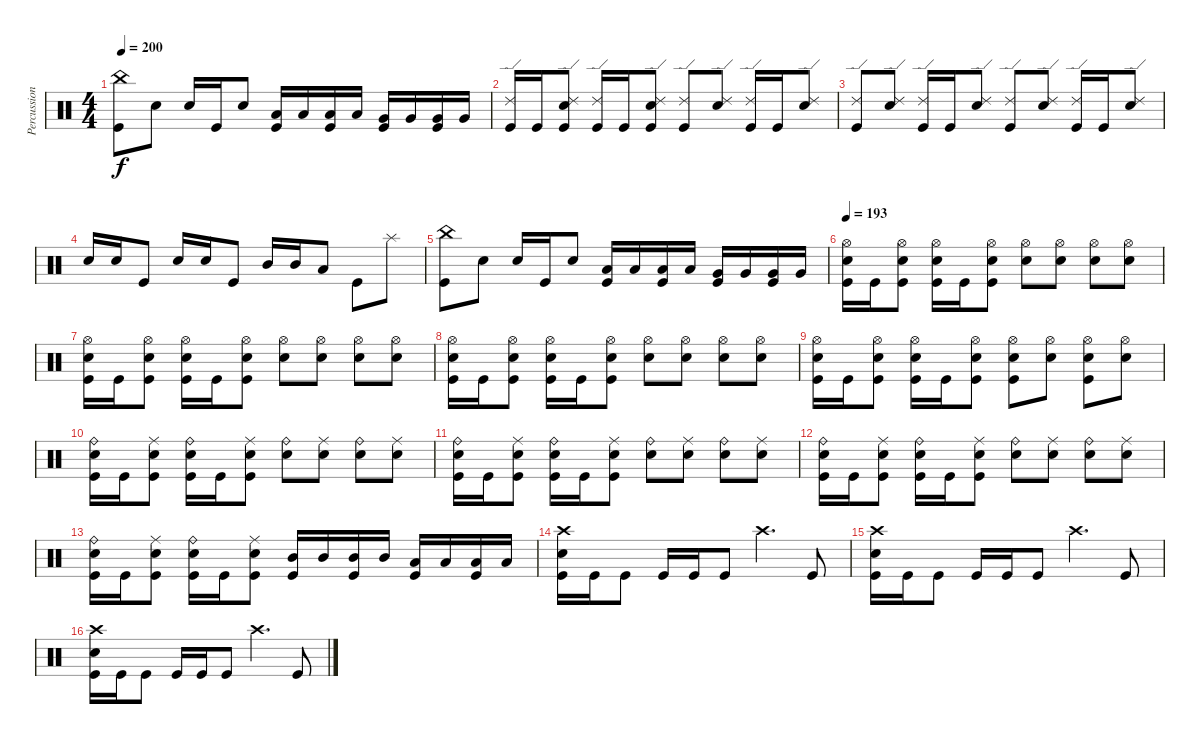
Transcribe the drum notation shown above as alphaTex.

\track ("Percussion" "Percussion") {instrument percussion}
\staff {score}
\articulation defaults
\ts (4 4)
\tempo 200
\clef neutral
\ks c
("China (hit)" "Kick (hit)").8{dy f} "Snare (hit) 2".8 "Snare (hit) 2".16 "Kick (hit)".16 "Snare (hit) 2".8 ("Low Tom (hit)" "Kick (hit)").16 "Low Tom (hit)".16 ("Low Tom (hit)" "Kick (hit)").16 "Low Tom (hit)".16 ("Very Low Tom (hit)" "Kick (hit)").16 "Very Low Tom (hit)".16 ("Very Low Tom (hit)" "Kick (hit)").16 "Very Low Tom (hit)".16 |
("Ride (edge) 2" "Kick (hit)").16 "Kick (hit)".16 ("Ride (edge) 2" "Snare (hit) 2" "Kick (hit)").8 ("Ride (edge) 2" "Kick (hit)").16 "Kick (hit)".16 ("Ride (edge) 2" "Snare (hit) 2" "Kick (hit)").8 ("Ride (edge) 2" "Kick (hit)").8 ("Ride (edge) 2" "Snare (hit) 2").8 ("Ride (edge) 2" "Kick (hit)").16 "Kick (hit)".16 ("Ride (edge) 2" "Snare (hit) 2").8 |
("Ride (edge) 2" "Kick (hit)").8 ("Ride (edge) 2" "Snare (hit) 2").8 ("Ride (edge) 2" "Kick (hit)").16 "Kick (hit)".16 ("Ride (edge) 2" "Snare (hit) 2").8 ("Ride (edge) 2" "Kick (hit)").8 ("Ride (edge) 2" "Snare (hit) 2").8 ("Ride (edge) 2" "Kick (hit)").16 "Kick (hit)".16 ("Ride (edge) 2" "Snare (hit) 2").8 |
"Snare (hit) 2".16 "Snare (hit) 2".16 "Kick (hit)".8 "Snare (hit) 2".16 "Snare (hit) 2".16 "Kick (hit)".8 "Mid Tom (hit)".16 "Mid Tom (hit)".16 "Low Tom (hit)".8 "Kick (hit)".8 "Splash (hit)".8 |
("China (hit)" "Kick (hit)").8 "Snare (hit) 2".8 "Snare (hit) 2".16 "Kick (hit)".16 "Snare (hit) 2".8 ("Low Tom (hit)" "Kick (hit)").16 "Low Tom (hit)".16 ("Low Tom (hit)" "Kick (hit)").16 "Low Tom (hit)".16 ("Very Low Tom (hit)" "Kick (hit)").16 "Very Low Tom (hit)".16 ("Very Low Tom (hit)" "Kick (hit)").16 "Very Low Tom (hit)".16 |
\tempo 193
("Hi-Hat (open)" "Snare (hit) 2" "Kick (hit)").16 "Kick (hit)".16 ("Hi-Hat (open)" "Snare (hit) 2" "Kick (hit)").8 ("Hi-Hat (open)" "Snare (hit) 2" "Kick (hit)").16 "Kick (hit)".16 ("Hi-Hat (open)" "Snare (hit) 2" "Kick (hit)").8 ("Hi-Hat (open)" "Snare (hit) 2").8 ("Hi-Hat (open)" "Snare (hit) 2").8 ("Hi-Hat (open)" "Snare (hit) 2").8 ("Hi-Hat (open)" "Snare (hit) 2").8 |
("Hi-Hat (open)" "Snare (hit) 2" "Kick (hit)").16 "Kick (hit)".16 ("Hi-Hat (open)" "Snare (hit) 2" "Kick (hit)").8 ("Hi-Hat (open)" "Snare (hit) 2" "Kick (hit)").16 "Kick (hit)".16 ("Hi-Hat (open)" "Snare (hit) 2" "Kick (hit)").8 ("Hi-Hat (open)" "Snare (hit) 2").8 ("Hi-Hat (open)" "Snare (hit) 2").8 ("Hi-Hat (open)" "Snare (hit) 2").8 ("Hi-Hat (open)" "Snare (hit) 2").8 |
("Hi-Hat (open)" "Snare (hit) 2" "Kick (hit)").16 "Kick (hit)".16 ("Hi-Hat (open)" "Snare (hit) 2" "Kick (hit)").8 ("Hi-Hat (open)" "Snare (hit) 2" "Kick (hit)").16 "Kick (hit)".16 ("Hi-Hat (open)" "Snare (hit) 2" "Kick (hit)").8 ("Hi-Hat (open)" "Snare (hit) 2").8 ("Hi-Hat (open)" "Snare (hit) 2").8 ("Hi-Hat (open)" "Snare (hit) 2").8 ("Hi-Hat (open)" "Snare (hit) 2").8 |
("Hi-Hat (open)" "Snare (hit) 2" "Kick (hit)").16 "Kick (hit)".16 ("Hi-Hat (open)" "Snare (hit) 2" "Kick (hit)").8 ("Hi-Hat (open)" "Snare (hit) 2" "Kick (hit)").16 "Kick (hit)".16 ("Hi-Hat (open)" "Snare (hit) 2" "Kick (hit)").8 ("Hi-Hat (open)" "Snare (hit) 2" "Kick (hit)").8 ("Hi-Hat (open)" "Snare (hit) 2").8 ("Hi-Hat (open)" "Snare (hit) 2" "Kick (hit)").8 ("Hi-Hat (open)" "Snare (hit) 2").8 |
("Ride (bell)" "Snare (hit) 2" "Kick (hit)").16 "Kick (hit)".16 ("Ride (middle)" "Snare (hit) 2" "Kick (hit)").8 ("Ride (bell)" "Snare (hit) 2" "Kick (hit)").16 "Kick (hit)".16 ("Ride (middle)" "Snare (hit) 2" "Kick (hit)").8 ("Ride (bell)" "Snare (hit) 2").8 ("Ride (middle)" "Snare (hit) 2").8 ("Ride (bell)" "Snare (hit) 2").8 ("Ride (middle)" "Snare (hit) 2").8 |
("Ride (bell)" "Snare (hit) 2" "Kick (hit)").16 "Kick (hit)".16 ("Ride (middle)" "Snare (hit) 2" "Kick (hit)").8 ("Ride (bell)" "Snare (hit) 2" "Kick (hit)").16 "Kick (hit)".16 ("Ride (middle)" "Snare (hit) 2" "Kick (hit)").8 ("Ride (bell)" "Snare (hit) 2").8 ("Ride (middle)" "Snare (hit) 2").8 ("Ride (bell)" "Snare (hit) 2").8 ("Ride (middle)" "Snare (hit) 2").8 |
("Ride (bell)" "Snare (hit) 2" "Kick (hit)").16 "Kick (hit)".16 ("Ride (middle)" "Snare (hit) 2" "Kick (hit)").8 ("Ride (bell)" "Snare (hit) 2" "Kick (hit)").16 "Kick (hit)".16 ("Ride (middle)" "Snare (hit) 2" "Kick (hit)").8 ("Ride (bell)" "Snare (hit) 2").8 ("Ride (middle)" "Snare (hit) 2").8 ("Ride (bell)" "Snare (hit) 2").8 ("Ride (middle)" "Snare (hit) 2").8 |
("Ride (bell)" "Snare (hit) 2" "Kick (hit)").16 "Kick (hit)".16 ("Ride (middle)" "Snare (hit) 2" "Kick (hit)").8 ("Ride (bell)" "Snare (hit) 2" "Kick (hit)").16 "Kick (hit)".16 ("Ride (middle)" "Snare (hit) 2" "Kick (hit)").8 ("Mid Tom (hit)" "Kick (hit)").16 "Mid Tom (hit)".16 ("Mid Tom (hit)" "Kick (hit)").16 "Mid Tom (hit)".16 ("Low Tom (hit)" "Kick (hit)").16 "Low Tom (hit)".16 ("Low Tom (hit)" "Kick (hit)").16 "Low Tom (hit)".16 |
("Crash high (hit)" "Snare (hit) 2" "Kick (hit)").16 "Kick (hit)".16 "Kick (hit)".8 "Kick (hit)".16 "Kick (hit)".16 "Kick (hit)".8 "Crash high (hit)".4{d} "Kick (hit)".8 |
("Crash high (hit)" "Snare (hit) 2" "Kick (hit)").16 "Kick (hit)".16 "Kick (hit)".8 "Kick (hit)".16 "Kick (hit)".16 "Kick (hit)".8 "Crash high (hit)".4{d} "Kick (hit)".8 |
("Crash high (hit)" "Snare (hit) 2" "Kick (hit)").16 "Kick (hit)".16 "Kick (hit)".8 "Kick (hit)".16 "Kick (hit)".16 "Kick (hit)".8 "Crash high (hit)".4{d} "Kick (hit)".8
